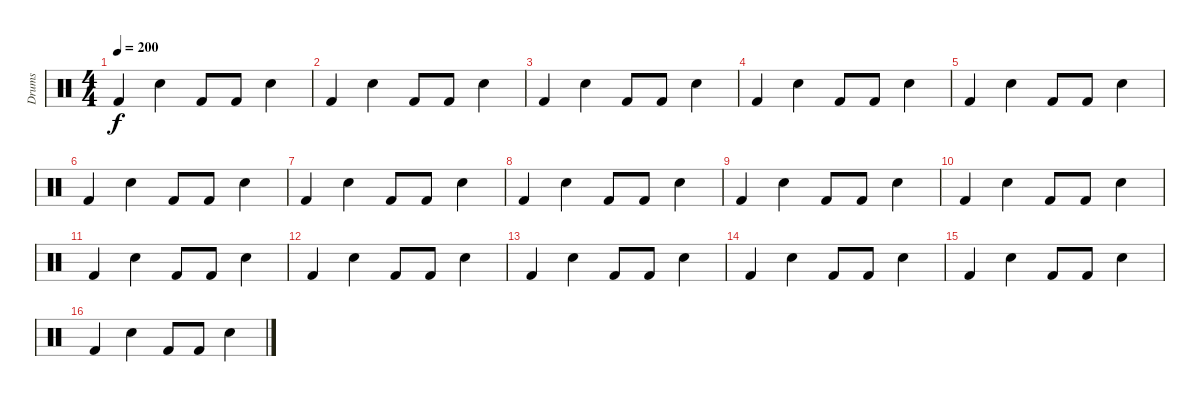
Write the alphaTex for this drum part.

\track ("Drums" "Drums") {instrument percussion}
\staff {score}
\articulation defaults
\ts (4 4)
\tempo 200
\clef neutral
\ks c "Kick (hit) 2".4{dy f} "Snare (hit) 2".4 "Kick (hit) 2".8 "Kick (hit) 2".8 "Snare (hit) 2".4
|
"Kick (hit) 2".4 "Snare (hit) 2".4 "Kick (hit) 2".8 "Kick (hit) 2".8 "Snare (hit) 2".4 |
"Kick (hit) 2".4 "Snare (hit) 2".4 "Kick (hit) 2".8 "Kick (hit) 2".8 "Snare (hit) 2".4 |
"Kick (hit) 2".4 "Snare (hit) 2".4 "Kick (hit) 2".8 "Kick (hit) 2".8 "Snare (hit) 2".4 |
"Kick (hit) 2".4 "Snare (hit) 2".4 "Kick (hit) 2".8 "Kick (hit) 2".8 "Snare (hit) 2".4 |
"Kick (hit) 2".4 "Snare (hit) 2".4 "Kick (hit) 2".8 "Kick (hit) 2".8 "Snare (hit) 2".4 |
"Kick (hit) 2".4 "Snare (hit) 2".4 "Kick (hit) 2".8 "Kick (hit) 2".8 "Snare (hit) 2".4 |
"Kick (hit) 2".4 "Snare (hit) 2".4 "Kick (hit) 2".8 "Kick (hit) 2".8 "Snare (hit) 2".4 |
"Kick (hit) 2".4 "Snare (hit) 2".4 "Kick (hit) 2".8 "Kick (hit) 2".8 "Snare (hit) 2".4 |
"Kick (hit) 2".4 "Snare (hit) 2".4 "Kick (hit) 2".8 "Kick (hit) 2".8 "Snare (hit) 2".4 |
"Kick (hit) 2".4 "Snare (hit) 2".4 "Kick (hit) 2".8 "Kick (hit) 2".8 "Snare (hit) 2".4 |
"Kick (hit) 2".4 "Snare (hit) 2".4 "Kick (hit) 2".8 "Kick (hit) 2".8 "Snare (hit) 2".4 |
"Kick (hit) 2".4 "Snare (hit) 2".4 "Kick (hit) 2".8 "Kick (hit) 2".8 "Snare (hit) 2".4 |
"Kick (hit) 2".4 "Snare (hit) 2".4 "Kick (hit) 2".8 "Kick (hit) 2".8 "Snare (hit) 2".4 |
"Kick (hit) 2".4 "Snare (hit) 2".4 "Kick (hit) 2".8 "Kick (hit) 2".8 "Snare (hit) 2".4 |
"Kick (hit) 2".4 "Snare (hit) 2".4 "Kick (hit) 2".8 "Kick (hit) 2".8 "Snare (hit) 2".4
